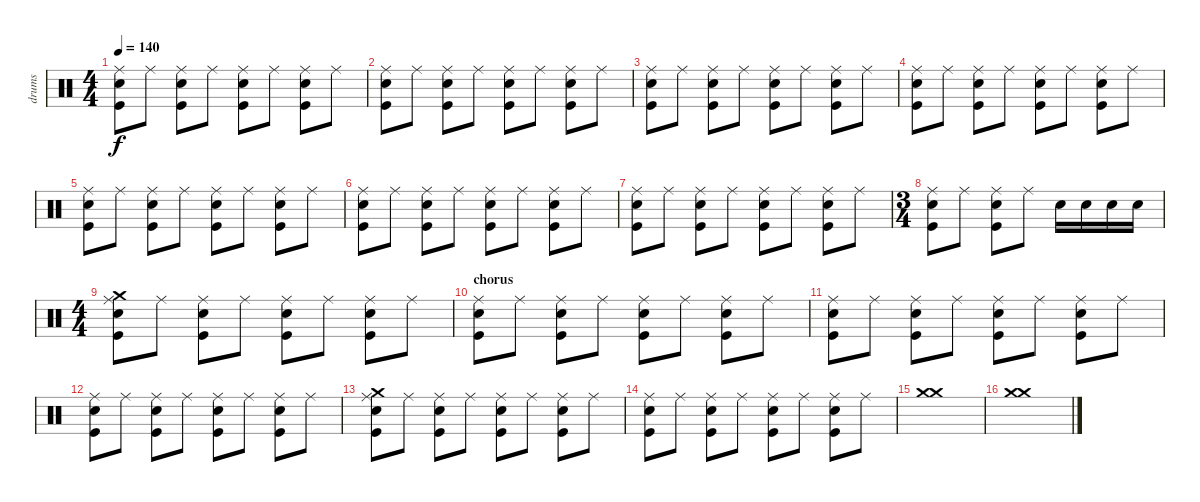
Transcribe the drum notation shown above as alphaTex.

\track ("drums" "drums") {instrument percussion}
\staff {score}
\articulation defaults
\ts (4 4)
\tempo 140
\clef neutral
\ks c
("Ride (middle)" "Snare (hit) 2" "Kick (hit)").8{dy f} "Ride (middle)".8 ("Ride (middle)" "Snare (hit) 2" "Kick (hit)").8 "Ride (middle)".8 ("Ride (middle)" "Snare (hit) 2" "Kick (hit)").8 "Ride (middle)".8 ("Ride (middle)" "Snare (hit) 2" "Kick (hit)").8 "Ride (middle)".8 |
("Ride (middle)" "Snare (hit) 2" "Kick (hit)").8 "Ride (middle)".8 ("Ride (middle)" "Snare (hit) 2" "Kick (hit)").8 "Ride (middle)".8 ("Ride (middle)" "Snare (hit) 2" "Kick (hit)").8 "Ride (middle)".8 ("Ride (middle)" "Snare (hit) 2" "Kick (hit)").8 "Ride (middle)".8 |
("Ride (middle)" "Snare (hit) 2" "Kick (hit)").8 "Ride (middle)".8 ("Ride (middle)" "Snare (hit) 2" "Kick (hit)").8 "Ride (middle)".8 ("Ride (middle)" "Snare (hit) 2" "Kick (hit)").8 "Ride (middle)".8 ("Ride (middle)" "Snare (hit) 2" "Kick (hit)").8 "Ride (middle)".8 |
("Ride (middle)" "Snare (hit) 2" "Kick (hit)").8 "Ride (middle)".8 ("Ride (middle)" "Snare (hit) 2" "Kick (hit)").8 "Ride (middle)".8 ("Ride (middle)" "Snare (hit) 2" "Kick (hit)").8 "Ride (middle)".8 ("Ride (middle)" "Snare (hit) 2" "Kick (hit)").8 "Ride (middle)".8 |
("Ride (middle)" "Snare (hit) 2" "Kick (hit)").8 "Ride (middle)".8 ("Ride (middle)" "Snare (hit) 2" "Kick (hit)").8 "Ride (middle)".8 ("Ride (middle)" "Snare (hit) 2" "Kick (hit)").8 "Ride (middle)".8 ("Ride (middle)" "Snare (hit) 2" "Kick (hit)").8 "Ride (middle)".8 |
("Ride (middle)" "Snare (hit) 2" "Kick (hit)").8 "Ride (middle)".8 ("Ride (middle)" "Snare (hit) 2" "Kick (hit)").8 "Ride (middle)".8 ("Ride (middle)" "Snare (hit) 2" "Kick (hit)").8 "Ride (middle)".8 ("Ride (middle)" "Snare (hit) 2" "Kick (hit)").8 "Ride (middle)".8 |
("Ride (middle)" "Snare (hit) 2" "Kick (hit)").8 "Ride (middle)".8 ("Ride (middle)" "Snare (hit) 2" "Kick (hit)").8 "Ride (middle)".8 ("Ride (middle)" "Snare (hit) 2" "Kick (hit)").8 "Ride (middle)".8 ("Ride (middle)" "Snare (hit) 2" "Kick (hit)").8 "Ride (middle)".8 |
\ts (3 4)
("Ride (middle)" "Snare (hit) 2" "Kick (hit)").8 "Ride (middle)".8 ("Ride (middle)" "Snare (hit) 2" "Kick (hit)").8 "Ride (middle)".8 "Snare (hit) 2".16 "Snare (hit) 2".16 "Snare (hit) 2".16 "Snare (hit) 2".16 |
\ts (4 4)
("Ride (middle)" "Crash medium (hit)" "Snare (hit) 2" "Kick (hit)").8 "Ride (middle)".8 ("Ride (middle)" "Snare (hit) 2" "Kick (hit)").8 "Ride (middle)".8 ("Ride (middle)" "Snare (hit) 2" "Kick (hit)").8 "Ride (middle)".8 ("Ride (middle)" "Snare (hit) 2" "Kick (hit)").8 "Ride (middle)".8 |
\section ("" "chorus")
("Ride (middle)" "Snare (hit) 2" "Kick (hit)").8 "Ride (middle)".8 ("Ride (middle)" "Snare (hit) 2" "Kick (hit)").8 "Ride (middle)".8 ("Ride (middle)" "Snare (hit) 2" "Kick (hit)").8 "Ride (middle)".8 ("Ride (middle)" "Snare (hit) 2" "Kick (hit)").8 "Ride (middle)".8 |
("Ride (middle)" "Snare (hit) 2" "Kick (hit)").8 "Ride (middle)".8 ("Ride (middle)" "Snare (hit) 2" "Kick (hit)").8 "Ride (middle)".8 ("Ride (middle)" "Snare (hit) 2" "Kick (hit)").8 "Ride (middle)".8 ("Ride (middle)" "Snare (hit) 2" "Kick (hit)").8 "Ride (middle)".8 |
("Ride (middle)" "Snare (hit) 2" "Kick (hit)").8 "Ride (middle)".8 ("Ride (middle)" "Snare (hit) 2" "Kick (hit)").8 "Ride (middle)".8 ("Ride (middle)" "Snare (hit) 2" "Kick (hit)").8 "Ride (middle)".8 ("Ride (middle)" "Snare (hit) 2" "Kick (hit)").8 "Ride (middle)".8 |
("Ride (middle)" "Crash medium (hit)" "Snare (hit) 2" "Kick (hit)").8 "Ride (middle)".8 ("Ride (middle)" "Snare (hit) 2" "Kick (hit)").8 "Ride (middle)".8 ("Ride (middle)" "Snare (hit) 2" "Kick (hit)").8 "Ride (middle)".8 ("Ride (middle)" "Snare (hit) 2" "Kick (hit)").8 "Ride (middle)".8 |
("Ride (middle)" "Snare (hit) 2" "Kick (hit)").8 "Ride (middle)".8 ("Ride (middle)" "Snare (hit) 2" "Kick (hit)").8 "Ride (middle)".8 ("Ride (middle)" "Snare (hit) 2" "Kick (hit)").8 "Ride (middle)".8 ("Ride (middle)" "Snare (hit) 2" "Kick (hit)").8 "Ride (middle)".8 |
("Crash medium (hit)" "Crash medium (hit)").1 |
("Crash medium (hit)" "Crash medium (hit)").1
